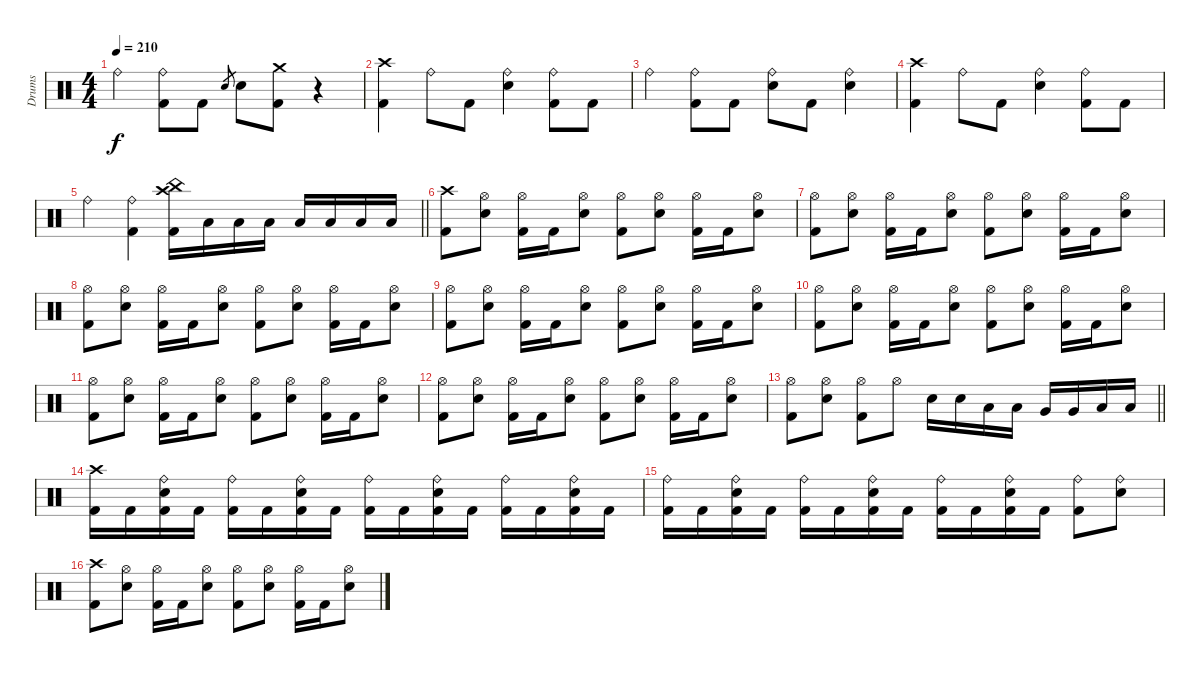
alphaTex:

\track ("Drums" "Drums") {instrument percussion}
\staff {score}
\articulation defaults
\ts (4 4)
\tempo 210
\clef neutral
\ks c "Ride (bell)".4{dy f}
("Ride (bell)" "Kick (hit) 2").8 "Kick (hit) 2".8 "Snare (hit) 2".8{gr} "Snare (hit) 2".8 ("Crash medium (hit)" "Kick (hit) 2").8 r.4 |
("Crash high (hit)" "Kick (hit) 2").4 "Ride (bell)".8 "Kick (hit) 2".8 ("Ride (bell)" "Snare (hit) 2").4 ("Ride (bell)" "Kick (hit) 2").8 "Kick (hit) 2".8 |
"Ride (bell)".4 ("Ride (bell)" "Kick (hit) 2").8 "Kick (hit) 2".8 ("Ride (bell)" "Snare (hit) 2").8 "Kick (hit) 2".8 ("Ride (bell)" "Snare (hit) 2").4 |
("Crash high (hit)" "Kick (hit) 2").4 "Ride (bell)".8 "Kick (hit) 2".8 ("Ride (bell)" "Snare (hit) 2").4 ("Ride (bell)" "Kick (hit) 2").8 "Kick (hit) 2".8 |
\barLineRight lightlight "Ride (bell)".4
("Ride (bell)" "Kick (hit) 2").4 ("China (hit)" "Crash high (hit)" "Kick (hit) 2").16 "Low Floor Tom (hit)".16 "Low Floor Tom (hit)".16 "Low Floor Tom (hit)".16 "Low Floor Tom (hit)".16 "Low Floor Tom (hit)".16 "Low Floor Tom (hit)".16 "Low Floor Tom (hit)".16 |
("Crash high (hit)" "Kick (hit) 2").8 ("Hi-Hat (open)" "Snare (hit) 2").8 ("Hi-Hat (open)" "Kick (hit) 2").16 "Kick (hit) 2".16 ("Hi-Hat (open)" "Snare (hit) 2").8 ("Hi-Hat (open)" "Kick (hit) 2").8 ("Hi-Hat (open)" "Snare (hit) 2").8 ("Hi-Hat (open)" "Kick (hit) 2").16 "Kick (hit) 2".16 ("Hi-Hat (open)" "Snare (hit) 2").8 |
("Hi-Hat (open)" "Kick (hit) 2").8 ("Hi-Hat (open)" "Snare (hit) 2").8 ("Hi-Hat (open)" "Kick (hit) 2").16 "Kick (hit) 2".16 ("Hi-Hat (open)" "Snare (hit) 2").8 ("Hi-Hat (open)" "Kick (hit) 2").8 ("Hi-Hat (open)" "Snare (hit) 2").8 ("Hi-Hat (open)" "Kick (hit) 2").16 "Kick (hit) 2".16 ("Hi-Hat (open)" "Snare (hit) 2").8 |
("Hi-Hat (open)" "Kick (hit) 2").8 ("Hi-Hat (open)" "Snare (hit) 2").8 ("Hi-Hat (open)" "Kick (hit) 2").16 "Kick (hit) 2".16 ("Hi-Hat (open)" "Snare (hit) 2").8 ("Hi-Hat (open)" "Kick (hit) 2").8 ("Hi-Hat (open)" "Snare (hit) 2").8 ("Hi-Hat (open)" "Kick (hit) 2").16 "Kick (hit) 2".16 ("Hi-Hat (open)" "Snare (hit) 2").8 |
("Hi-Hat (open)" "Kick (hit) 2").8 ("Hi-Hat (open)" "Snare (hit) 2").8 ("Hi-Hat (open)" "Kick (hit) 2").16 "Kick (hit) 2".16 ("Hi-Hat (open)" "Snare (hit) 2").8 ("Hi-Hat (open)" "Kick (hit) 2").8 ("Hi-Hat (open)" "Snare (hit) 2").8 ("Hi-Hat (open)" "Kick (hit) 2").16 "Kick (hit) 2".16 ("Hi-Hat (open)" "Snare (hit) 2").8 |
("Hi-Hat (open)" "Kick (hit) 2").8 ("Hi-Hat (open)" "Snare (hit) 2").8 ("Hi-Hat (open)" "Kick (hit) 2").16 "Kick (hit) 2".16 ("Hi-Hat (open)" "Snare (hit) 2").8 ("Hi-Hat (open)" "Kick (hit) 2").8 ("Hi-Hat (open)" "Snare (hit) 2").8 ("Hi-Hat (open)" "Kick (hit) 2").16 "Kick (hit) 2".16 ("Hi-Hat (open)" "Snare (hit) 2").8 |
("Hi-Hat (open)" "Kick (hit) 2").8 ("Hi-Hat (open)" "Snare (hit) 2").8 ("Hi-Hat (open)" "Kick (hit) 2").16 "Kick (hit) 2".16 ("Hi-Hat (open)" "Snare (hit) 2").8 ("Hi-Hat (open)" "Kick (hit) 2").8 ("Hi-Hat (open)" "Snare (hit) 2").8 ("Hi-Hat (open)" "Kick (hit) 2").16 "Kick (hit) 2".16 ("Hi-Hat (open)" "Snare (hit) 2").8 |
("Hi-Hat (open)" "Kick (hit) 2").8 ("Hi-Hat (open)" "Snare (hit) 2").8 ("Hi-Hat (open)" "Kick (hit) 2").16 "Kick (hit) 2".16 ("Hi-Hat (open)" "Snare (hit) 2").8 ("Hi-Hat (open)" "Kick (hit) 2").8 ("Hi-Hat (open)" "Snare (hit) 2").8 ("Hi-Hat (open)" "Kick (hit) 2").16 "Kick (hit) 2".16 ("Hi-Hat (open)" "Snare (hit) 2").8 |
\barLineRight lightlight
("Hi-Hat (open)" "Kick (hit) 2").8 ("Hi-Hat (open)" "Snare (hit) 2").8 ("Hi-Hat (open)" "Kick (hit) 2").8 "Hi-Hat (open)".8 "Snare (hit) 2".16 "Snare (hit) 2".16 "Low Tom (hit)".16 "Low Tom (hit)".16 "Very Low Tom (hit)".16 "Very Low Tom (hit)".16 "Low Floor Tom (hit)".16 "Low Floor Tom (hit)".16 |
("Crash high (hit)" "Kick (hit) 2").16 "Kick (hit) 2".16 ("Ride (bell)" "Snare (hit) 2" "Kick (hit) 2").16 "Kick (hit) 2".16 ("Ride (bell)" "Kick (hit) 2").16 "Kick (hit) 2".16 ("Ride (bell)" "Snare (hit) 2" "Kick (hit) 2").16 "Kick (hit) 2".16 ("Ride (bell)" "Kick (hit) 2").16 "Kick (hit) 2".16 ("Ride (bell)" "Snare (hit) 2" "Kick (hit) 2").16 "Kick (hit) 2".16 ("Ride (bell)" "Kick (hit) 2").16 "Kick (hit) 2".16 ("Ride (bell)" "Snare (hit) 2" "Kick (hit) 2").16 "Kick (hit) 2".16 |
("Ride (bell)" "Kick (hit) 2").16 "Kick (hit) 2".16 ("Ride (bell)" "Snare (hit) 2" "Kick (hit) 2").16 "Kick (hit) 2".16 ("Ride (bell)" "Kick (hit) 2").16 "Kick (hit) 2".16 ("Ride (bell)" "Snare (hit) 2" "Kick (hit) 2").16 "Kick (hit) 2".16 ("Ride (bell)" "Kick (hit) 2").16 "Kick (hit) 2".16 ("Ride (bell)" "Snare (hit) 2" "Kick (hit) 2").16 "Kick (hit) 2".16 ("Ride (bell)" "Kick (hit) 2").8 ("Ride (bell)" "Snare (hit) 2").8 |
("Crash high (hit)" "Kick (hit) 2").8 ("Hi-Hat (open)" "Snare (hit) 2").8 ("Hi-Hat (open)" "Kick (hit) 2").16 "Kick (hit) 2".16 ("Hi-Hat (open)" "Snare (hit) 2").8 ("Hi-Hat (open)" "Kick (hit) 2").8 ("Hi-Hat (open)" "Snare (hit) 2").8 ("Hi-Hat (open)" "Kick (hit) 2").16 "Kick (hit) 2".16 ("Hi-Hat (open)" "Snare (hit) 2").8
